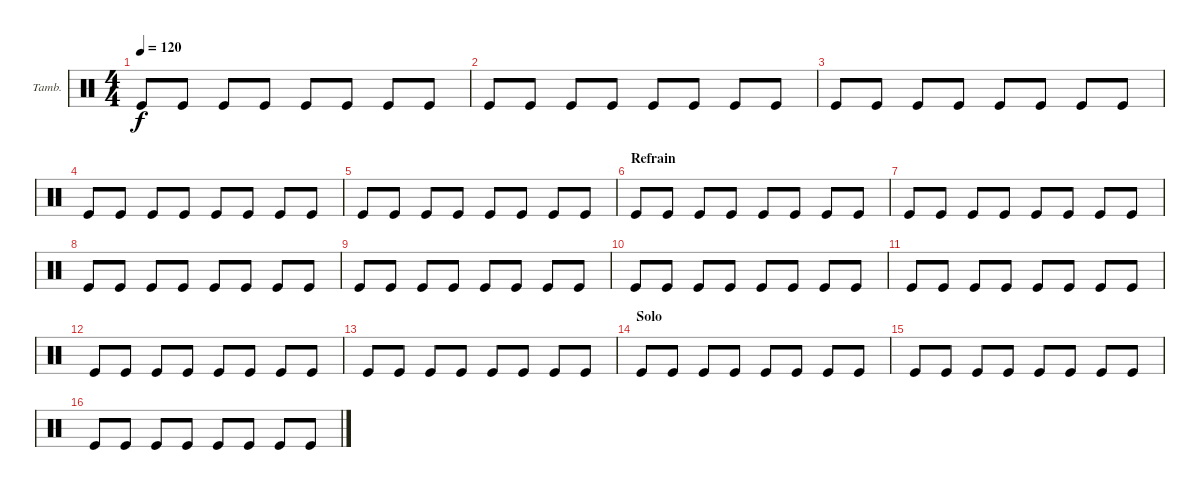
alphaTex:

\defaultSystemsLayout 4
\bracketExtendMode groupsimilarinstruments
\firstSystemTrackNameOrientation horizontal
\otherSystemsTrackNameOrientation horizontal
\track ("Tambourine" "Tamb.") {multiBarRest instrument percussion}
\staff {score}
\articulation defaults
\ts (4 4)
\tempo 120
\clef neutral
\ks c "Kick (hit)".8{dy f} "Kick (hit)".8 "Kick (hit)".8 "Kick (hit)".8 "Kick (hit)".8 "Kick (hit)".8 "Kick (hit)".8 "Kick (hit)".8
|
"Kick (hit)".8 "Kick (hit)".8 "Kick (hit)".8 "Kick (hit)".8 "Kick (hit)".8 "Kick (hit)".8 "Kick (hit)".8 "Kick (hit)".8 |
"Kick (hit)".8 "Kick (hit)".8 "Kick (hit)".8 "Kick (hit)".8 "Kick (hit)".8 "Kick (hit)".8 "Kick (hit)".8 "Kick (hit)".8 |
"Kick (hit)".8 "Kick (hit)".8 "Kick (hit)".8 "Kick (hit)".8 "Kick (hit)".8 "Kick (hit)".8 "Kick (hit)".8 "Kick (hit)".8 |
"Kick (hit)".8 "Kick (hit)".8 "Kick (hit)".8 "Kick (hit)".8 "Kick (hit)".8 "Kick (hit)".8 "Kick (hit)".8 "Kick (hit)".8 |
\section ("" "Refrain")
"Kick (hit)".8 "Kick (hit)".8 "Kick (hit)".8 "Kick (hit)".8 "Kick (hit)".8 "Kick (hit)".8 "Kick (hit)".8 "Kick (hit)".8 |
"Kick (hit)".8 "Kick (hit)".8 "Kick (hit)".8 "Kick (hit)".8 "Kick (hit)".8 "Kick (hit)".8 "Kick (hit)".8 "Kick (hit)".8 |
"Kick (hit)".8 "Kick (hit)".8 "Kick (hit)".8 "Kick (hit)".8 "Kick (hit)".8 "Kick (hit)".8 "Kick (hit)".8 "Kick (hit)".8 |
"Kick (hit)".8 "Kick (hit)".8 "Kick (hit)".8 "Kick (hit)".8 "Kick (hit)".8 "Kick (hit)".8 "Kick (hit)".8 "Kick (hit)".8 |
"Kick (hit)".8 "Kick (hit)".8 "Kick (hit)".8 "Kick (hit)".8 "Kick (hit)".8 "Kick (hit)".8 "Kick (hit)".8 "Kick (hit)".8 |
"Kick (hit)".8 "Kick (hit)".8 "Kick (hit)".8 "Kick (hit)".8 "Kick (hit)".8 "Kick (hit)".8 "Kick (hit)".8 "Kick (hit)".8 |
"Kick (hit)".8 "Kick (hit)".8 "Kick (hit)".8 "Kick (hit)".8 "Kick (hit)".8 "Kick (hit)".8 "Kick (hit)".8 "Kick (hit)".8 |
"Kick (hit)".8 "Kick (hit)".8 "Kick (hit)".8 "Kick (hit)".8 "Kick (hit)".8 "Kick (hit)".8 "Kick (hit)".8 "Kick (hit)".8 |
\section ("" "Solo")
"Kick (hit)".8 "Kick (hit)".8 "Kick (hit)".8 "Kick (hit)".8 "Kick (hit)".8 "Kick (hit)".8 "Kick (hit)".8 "Kick (hit)".8 |
"Kick (hit)".8 "Kick (hit)".8 "Kick (hit)".8 "Kick (hit)".8 "Kick (hit)".8 "Kick (hit)".8 "Kick (hit)".8 "Kick (hit)".8 |
"Kick (hit)".8 "Kick (hit)".8 "Kick (hit)".8 "Kick (hit)".8 "Kick (hit)".8 "Kick (hit)".8 "Kick (hit)".8 "Kick (hit)".8
